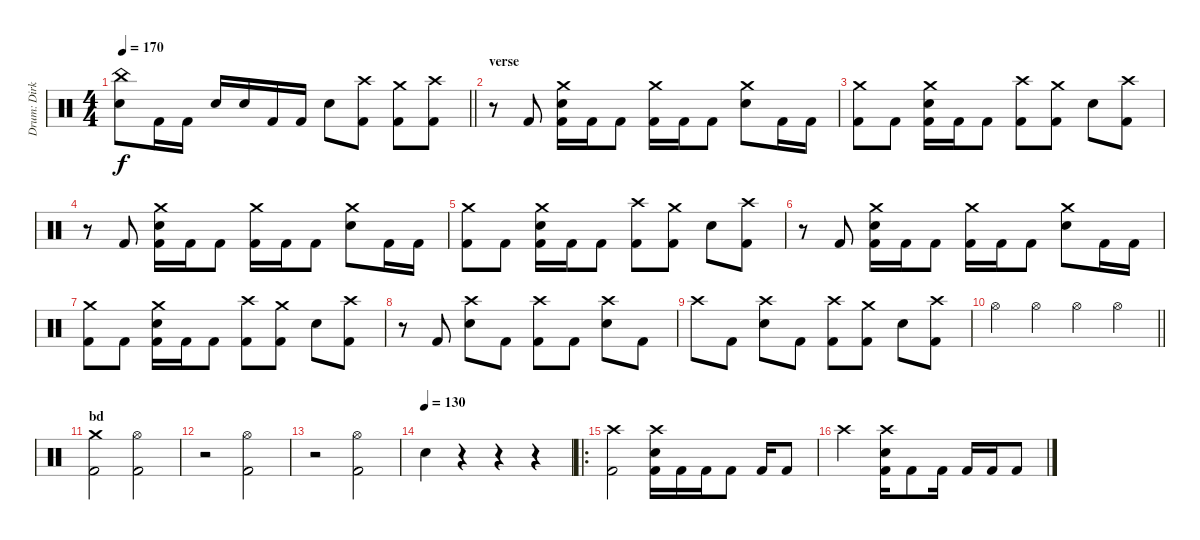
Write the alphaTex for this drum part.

\track ("Drum: Dirk" "Drum: Dirk") {instrument percussion}
\staff {score}
\articulation defaults
\ts (4 4)
\tempo 170
\clef neutral
\barLineRight lightlight
\ks c
("China (hit)" "Electric Snare (hit)").8{dy f} "Kick (hit) 2".16 "Kick (hit) 2".16 "Electric Snare (hit)".16 "Electric Snare (hit)".16 "Kick (hit) 2".16 "Kick (hit) 2".16 "Electric Snare (hit)".8 ("Crash high (hit)" "Kick (hit) 2").8 ("Crash medium (hit)" "Kick (hit) 2").8 ("Crash high (hit)" "Kick (hit) 2").8 |
\section ("" "verse")
r.8 "Kick (hit) 2".8 ("Crash medium (hit)" "Electric Snare (hit)" "Kick (hit) 2").16 "Kick (hit) 2".16 "Kick (hit) 2".8 ("Crash medium (hit)" "Kick (hit) 2").16 "Kick (hit) 2".16 "Kick (hit) 2".8 ("Crash medium (hit)" "Electric Snare (hit)").8 "Kick (hit) 2".16 "Kick (hit) 2".16 |
("Crash medium (hit)" "Kick (hit) 2").8 "Kick (hit) 2".8 ("Crash medium (hit)" "Electric Snare (hit)" "Kick (hit) 2").16 "Kick (hit) 2".16 "Kick (hit) 2".8 ("Crash high (hit)" "Kick (hit) 2").8 ("Crash medium (hit)" "Kick (hit) 2").8 "Electric Snare (hit)".8 ("Crash high (hit)" "Kick (hit) 2").8 |
r.8 "Kick (hit) 2".8 ("Crash medium (hit)" "Electric Snare (hit)" "Kick (hit) 2").16 "Kick (hit) 2".16 "Kick (hit) 2".8 ("Crash medium (hit)" "Kick (hit) 2").16 "Kick (hit) 2".16 "Kick (hit) 2".8 ("Crash medium (hit)" "Electric Snare (hit)").8 "Kick (hit) 2".16 "Kick (hit) 2".16 |
("Crash medium (hit)" "Kick (hit) 2").8 "Kick (hit) 2".8 ("Crash medium (hit)" "Electric Snare (hit)" "Kick (hit) 2").16 "Kick (hit) 2".16 "Kick (hit) 2".8 ("Crash high (hit)" "Kick (hit) 2").8 ("Crash medium (hit)" "Kick (hit) 2").8 "Electric Snare (hit)".8 ("Crash high (hit)" "Kick (hit) 2").8 |
r.8 "Kick (hit) 2".8 ("Crash medium (hit)" "Electric Snare (hit)" "Kick (hit) 2").16 "Kick (hit) 2".16 "Kick (hit) 2".8 ("Crash medium (hit)" "Kick (hit) 2").16 "Kick (hit) 2".16 "Kick (hit) 2".8 ("Crash medium (hit)" "Electric Snare (hit)").8 "Kick (hit) 2".16 "Kick (hit) 2".16 |
("Crash medium (hit)" "Kick (hit) 2").8 "Kick (hit) 2".8 ("Crash medium (hit)" "Electric Snare (hit)" "Kick (hit) 2").16 "Kick (hit) 2".16 "Kick (hit) 2".8 ("Crash high (hit)" "Kick (hit) 2").8 ("Crash medium (hit)" "Kick (hit) 2").8 "Electric Snare (hit)".8 ("Crash high (hit)" "Kick (hit) 2").8 |
r.8 "Kick (hit) 2".8 ("Crash high (hit)" "Electric Snare (hit)").8 "Kick (hit) 2".8 ("Crash high (hit)" "Kick (hit) 2").8 "Kick (hit) 2".8 ("Crash high (hit)" "Electric Snare (hit)").8 "Kick (hit) 2".8 |
"Crash high (hit)".8 "Kick (hit) 2".8 ("Crash high (hit)" "Electric Snare (hit)").8 "Kick (hit) 2".8 ("Crash high (hit)" "Kick (hit) 2").8 ("Crash medium (hit)" "Kick (hit) 2").8 "Electric Snare (hit)".8 ("Crash high (hit)" "Kick (hit) 2").8 |
\barLineRight lightlight "Hi-Hat (open)".4 "Hi-Hat (open)".4 "Hi-Hat (open)".4 "Hi-Hat (open)".4
|
\section ("" "bd")
("Crash medium (hit)" "Kick (hit) 2").2 ("Hi-Hat (open)" "Kick (hit) 2").2 |
r.2 ("Hi-Hat (open)" "Kick (hit) 2").2 |
r.2 ("Hi-Hat (open)" "Kick (hit) 2").2 |
\tempo (130)
"Electric Snare (hit)".4 r.4 r.4 r.4 |
\ro
("Crash high (hit)" "Kick (hit) 2").2 ("Crash high (hit)" "Electric Snare (hit)" "Kick (hit) 2").16 "Kick (hit) 2".16 "Kick (hit) 2".16 "Kick (hit) 2".8 "Kick (hit) 2".16 "Kick (hit) 2".8 |
"Crash high (hit)".2 ("Crash high (hit)" "Electric Snare (hit)" "Kick (hit) 2").16 "Kick (hit) 2".8 "Kick (hit) 2".16 "Kick (hit) 2".16 "Kick (hit) 2".16 "Kick (hit) 2".8
